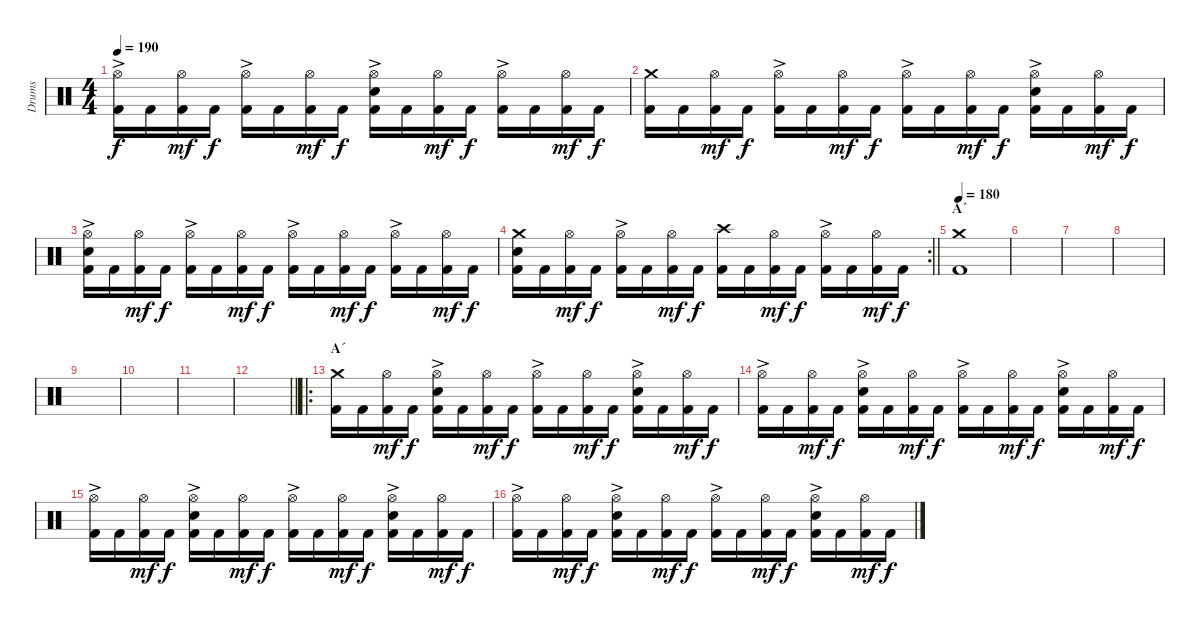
\track ("Drums" "Drums") {instrument percussion}
\staff {score}
\articulation defaults
\ts (4 4)
\tempo 190
\clef neutral
\ks c
("Hi-Hat (open)"{ac} "Kick (hit) 2").16{dy f} "Kick (hit) 2".16 ("Hi-Hat (open)" "Kick (hit) 2").16{dy mf} "Kick (hit) 2".16{dy f} ("Hi-Hat (open)"{ac} "Kick (hit) 2").16 "Kick (hit) 2".16 ("Hi-Hat (open)" "Kick (hit) 2").16{dy mf} "Kick (hit) 2".16{dy f} ("Hi-Hat (open)"{ac} "Electric Snare (hit)" "Kick (hit) 2").16 "Kick (hit) 2".16 ("Hi-Hat (open)" "Kick (hit) 2").16{dy mf} "Kick (hit) 2".16{dy f} ("Hi-Hat (open)"{ac} "Kick (hit) 2").16 "Kick (hit) 2".16 ("Hi-Hat (open)" "Kick (hit) 2").16{dy mf} "Kick (hit) 2".16{dy f} |
("Crash medium (hit)" "Kick (hit) 2").16 "Kick (hit) 2".16 ("Hi-Hat (open)" "Kick (hit) 2").16{dy mf} "Kick (hit) 2".16{dy f} ("Hi-Hat (open)"{ac} "Kick (hit) 2").16 "Kick (hit) 2".16 ("Hi-Hat (open)" "Kick (hit) 2").16{dy mf} "Kick (hit) 2".16{dy f} ("Hi-Hat (open)"{ac} "Kick (hit) 2").16 "Kick (hit) 2".16 ("Hi-Hat (open)" "Kick (hit) 2").16{dy mf} "Kick (hit) 2".16{dy f} ("Hi-Hat (open)"{ac} "Electric Snare (hit)" "Kick (hit) 2").16 "Kick (hit) 2".16 ("Hi-Hat (open)" "Kick (hit) 2").16{dy mf} "Kick (hit) 2".16{dy f} |
("Hi-Hat (open)"{ac} "Electric Snare (hit)" "Kick (hit) 2").16 "Kick (hit) 2".16 ("Hi-Hat (open)" "Kick (hit) 2").16{dy mf} "Kick (hit) 2".16{dy f} ("Hi-Hat (open)"{ac} "Kick (hit) 2").16 "Kick (hit) 2".16 ("Hi-Hat (open)" "Kick (hit) 2").16{dy mf} "Kick (hit) 2".16{dy f} ("Hi-Hat (open)"{ac} "Kick (hit) 2").16 "Kick (hit) 2".16 ("Hi-Hat (open)" "Kick (hit) 2").16{dy mf} "Kick (hit) 2".16{dy f} ("Hi-Hat (open)"{ac} "Kick (hit) 2").16 "Kick (hit) 2".16 ("Hi-Hat (open)" "Kick (hit) 2").16{dy mf} "Kick (hit) 2".16{dy f} |
\rc 2
\barLineRight lightlight
("Crash medium (hit)" "Electric Snare (hit)" "Kick (hit) 2").16 "Kick (hit) 2".16 ("Hi-Hat (open)" "Kick (hit) 2").16{dy mf} "Kick (hit) 2".16{dy f} ("Hi-Hat (open)"{ac} "Kick (hit) 2").16 "Kick (hit) 2".16 ("Hi-Hat (open)" "Kick (hit) 2").16{dy mf} "Kick (hit) 2".16{dy f} ("Crash high (hit)" "Kick (hit) 2").16 "Kick (hit) 2".16 ("Hi-Hat (open)" "Kick (hit) 2").16{dy mf} "Kick (hit) 2".16{dy f} ("Hi-Hat (open)"{ac} "Kick (hit) 2").16 "Kick (hit) 2".16 ("Hi-Hat (open)" "Kick (hit) 2").16{dy mf} "Kick (hit) 2".16{dy f} |
\section ("" "A´")
\tempo 180
("Crash medium (hit)" "Kick (hit) 2").1 |
|
|
|
|
|
|
\barLineRight lightlight
|
\ro
\section ("" "A´")
("Crash medium (hit)" "Kick (hit) 2").16 "Kick (hit) 2".16 ("Hi-Hat (open)" "Kick (hit) 2").16{dy mf} "Kick (hit) 2".16{dy f} ("Hi-Hat (open)"{ac} "Electric Snare (hit)" "Kick (hit) 2").16 "Kick (hit) 2".16 ("Hi-Hat (open)" "Kick (hit) 2").16{dy mf} "Kick (hit) 2".16{dy f} ("Hi-Hat (open)"{ac} "Kick (hit) 2").16 "Kick (hit) 2".16 ("Hi-Hat (open)" "Kick (hit) 2").16{dy mf} "Kick (hit) 2".16{dy f} ("Hi-Hat (open)"{ac} "Electric Snare (hit)" "Kick (hit) 2").16 "Kick (hit) 2".16 ("Hi-Hat (open)" "Kick (hit) 2").16{dy mf} "Kick (hit) 2".16{dy f} |
("Hi-Hat (open)"{ac} "Kick (hit) 2").16 "Kick (hit) 2".16 ("Hi-Hat (open)" "Kick (hit) 2").16{dy mf} "Kick (hit) 2".16{dy f} ("Hi-Hat (open)"{ac} "Electric Snare (hit)" "Kick (hit) 2").16 "Kick (hit) 2".16 ("Hi-Hat (open)" "Kick (hit) 2").16{dy mf} "Kick (hit) 2".16{dy f} ("Hi-Hat (open)"{ac} "Kick (hit) 2").16 "Kick (hit) 2".16 ("Hi-Hat (open)" "Kick (hit) 2").16{dy mf} "Kick (hit) 2".16{dy f} ("Hi-Hat (open)"{ac} "Electric Snare (hit)" "Kick (hit) 2").16 "Kick (hit) 2".16 ("Hi-Hat (open)" "Kick (hit) 2").16{dy mf} "Kick (hit) 2".16{dy f} |
("Hi-Hat (open)"{ac} "Kick (hit) 2").16 "Kick (hit) 2".16 ("Hi-Hat (open)" "Kick (hit) 2").16{dy mf} "Kick (hit) 2".16{dy f} ("Hi-Hat (open)"{ac} "Electric Snare (hit)" "Kick (hit) 2").16 "Kick (hit) 2".16 ("Hi-Hat (open)" "Kick (hit) 2").16{dy mf} "Kick (hit) 2".16{dy f} ("Hi-Hat (open)"{ac} "Kick (hit) 2").16 "Kick (hit) 2".16 ("Hi-Hat (open)" "Kick (hit) 2").16{dy mf} "Kick (hit) 2".16{dy f} ("Hi-Hat (open)"{ac} "Electric Snare (hit)" "Kick (hit) 2").16 "Kick (hit) 2".16 ("Hi-Hat (open)" "Kick (hit) 2").16{dy mf} "Kick (hit) 2".16{dy f} |
("Hi-Hat (open)"{ac} "Kick (hit) 2").16 "Kick (hit) 2".16 ("Hi-Hat (open)" "Kick (hit) 2").16{dy mf} "Kick (hit) 2".16{dy f} ("Hi-Hat (open)"{ac} "Electric Snare (hit)" "Kick (hit) 2").16 "Kick (hit) 2".16 ("Hi-Hat (open)" "Kick (hit) 2").16{dy mf} "Kick (hit) 2".16{dy f} ("Hi-Hat (open)"{ac} "Kick (hit) 2").16 "Kick (hit) 2".16 ("Hi-Hat (open)" "Kick (hit) 2").16{dy mf} "Kick (hit) 2".16{dy f} ("Hi-Hat (open)"{ac} "Electric Snare (hit)" "Kick (hit) 2").16 "Kick (hit) 2".16 ("Hi-Hat (open)" "Kick (hit) 2").16{dy mf} "Kick (hit) 2".16{dy f}
